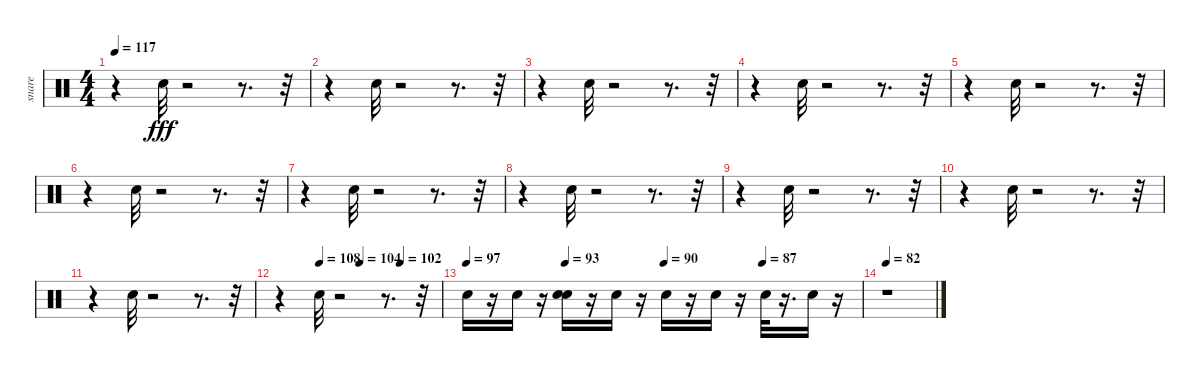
\track ("snare" "snare") {instrument percussion}
\staff {score}
\articulation defaults
\ts (4 4)
\tempo 117
\clef neutral
\ks c
r.4{dy fff} "Snare (hit) 2".32 r.2 r.8{d} r.32 |
r.4 "Snare (hit) 2".32 r.2 r.8{d} r.32 |
r.4 "Snare (hit) 2".32 r.2 r.8{d} r.32 |
r.4 "Snare (hit) 2".32 r.2 r.8{d} r.32 |
r.4 "Snare (hit) 2".32 r.2 r.8{d} r.32 |
r.4 "Snare (hit) 2".32 r.2 r.8{d} r.32 |
r.4 "Snare (hit) 2".32 r.2 r.8{d} r.32 |
r.4 "Snare (hit) 2".32 r.2 r.8{d} r.32 |
r.4 "Snare (hit) 2".32 r.2 r.8{d} r.32 |
r.4 "Snare (hit) 2".32 r.2 r.8{d} r.32 |
r.4 "Snare (hit) 2".32 r.2 r.8{d} r.32 |
\tempo (108 0.25)
\tempo (104 0.5)
\tempo (102 0.75)
r.4 "Snare (hit) 2".32 r.2 r.8{d} r.32 |
\tempo 97
\tempo (93 0.25)
\tempo (90 0.5)
\tempo (87 0.75)
"Snare (hit) 2".16 r.16 "Snare (hit) 2".16 r.16 ("Snare (hit) 2" "Snare (hit) 2").16 r.16 "Snare (hit) 2".16 r.16 "Snare (hit) 2".16 r.16 "Snare (hit) 2".16 r.16 "Snare (hit) 2".32 r.16{d} "Snare (hit) 2".16 r.16 |
\tempo 82
r.1
